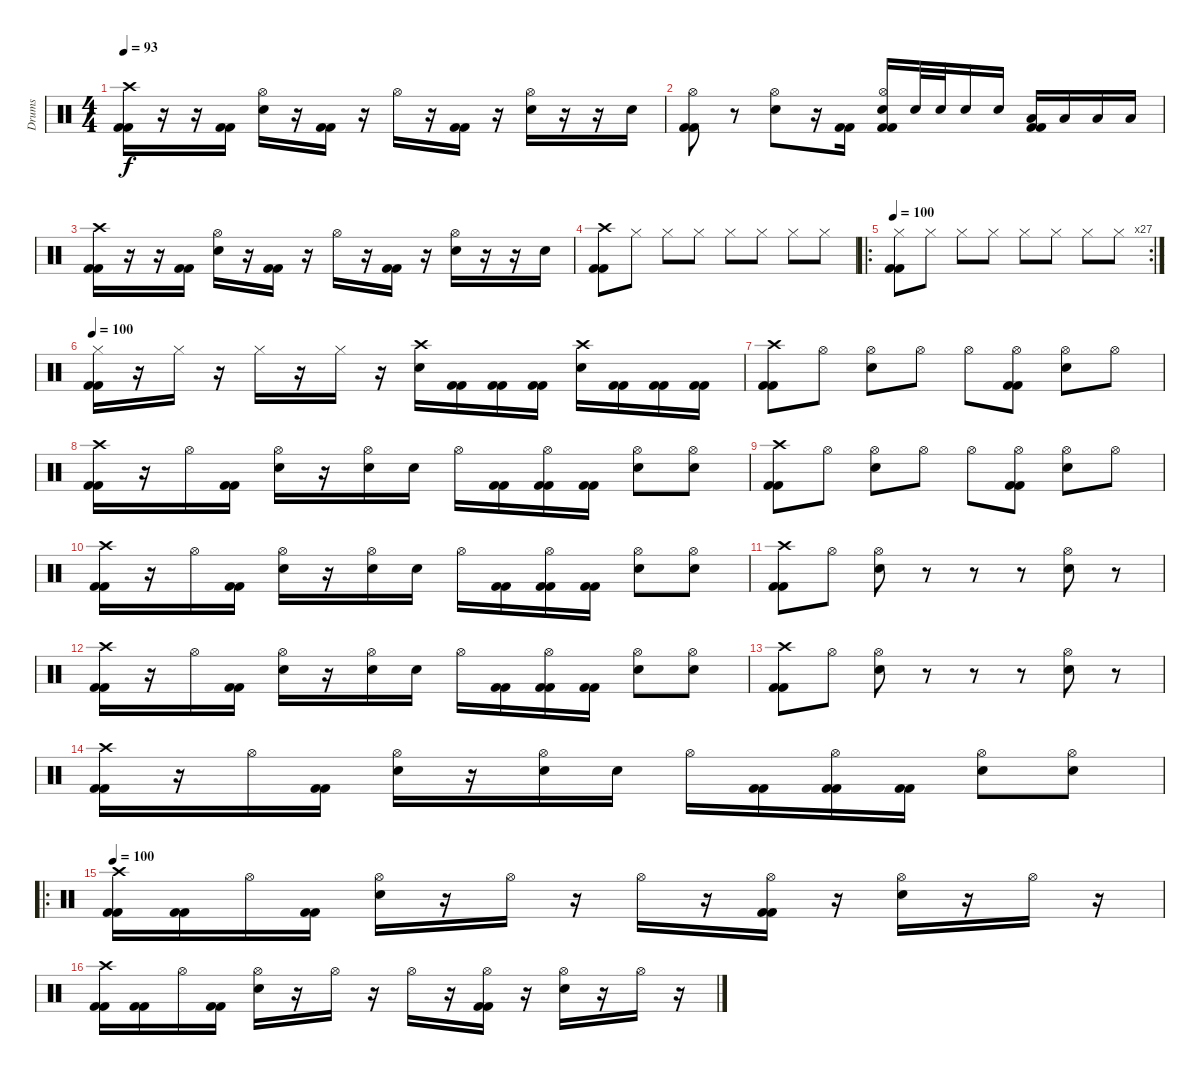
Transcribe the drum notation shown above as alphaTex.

\track ("Drums" "Drums") {instrument percussion}
\staff {score}
\articulation defaults
\ts (4 4)
\tempo 93
\clef neutral
\ks c
("Crash high (hit)" "Kick (hit) 2" "Kick (hit) 2").16{dy f} r.16 r.16 ("Kick (hit) 2" "Kick (hit) 2").16 ("Hi-Hat (open)" "Electric Snare (hit)").16 r.16 ("Kick (hit) 2" "Kick (hit) 2").16 r.16 "Hi-Hat (open)".16 r.16 ("Kick (hit) 2" "Kick (hit) 2").16 r.16 ("Hi-Hat (open)" "Electric Snare (hit)").16 r.16 r.16 "Electric Snare (hit)".16 |
("Hi-Hat (open)" "Kick (hit) 2" "Kick (hit) 2").8 r.8 ("Hi-Hat (open)" "Electric Snare (hit)").8 r.16 ("Kick (hit) 2" "Kick (hit) 2").16 ("Hi-Hat (open)" "Electric Snare (hit)" "Kick (hit) 2" "Kick (hit) 2").16 "Electric Snare (hit)".32 "Electric Snare (hit)".32 "Electric Snare (hit)".16 "Electric Snare (hit)".16 ("Low Tom (hit)" "Kick (hit) 2" "Kick (hit) 2").16 "Low Tom (hit)".16 "Low Tom (hit)".16 "Low Tom (hit)".16 |
("Crash high (hit)" "Kick (hit) 2" "Kick (hit) 2").16 r.16 r.16 ("Kick (hit) 2" "Kick (hit) 2").16 ("Hi-Hat (open)" "Electric Snare (hit)").16 r.16 ("Kick (hit) 2" "Kick (hit) 2").16 r.16 "Hi-Hat (open)".16 r.16 ("Kick (hit) 2" "Kick (hit) 2").16 r.16 ("Hi-Hat (open)" "Electric Snare (hit)").16 r.16 r.16 "Electric Snare (hit)".16 |
("Crash high (hit)" "Kick (hit) 2" "Kick (hit) 2").8 "Hi-Hat (closed)".8 "Hi-Hat (closed)".8 "Hi-Hat (closed)".8 "Hi-Hat (closed)".8 "Hi-Hat (closed)".8 "Hi-Hat (closed)".8 "Hi-Hat (closed)".8 |
\ro
\rc 27
\tempo 100
("Hi-Hat (closed)" "Kick (hit) 2" "Kick (hit) 2").8 "Hi-Hat (closed)".8 "Hi-Hat (closed)".8 "Hi-Hat (closed)".8 "Hi-Hat (closed)".8 "Hi-Hat (closed)".8 "Hi-Hat (closed)".8 "Hi-Hat (closed)".8 |
\tempo 100
("Hi-Hat (closed)" "Kick (hit) 2" "Kick (hit) 2").16 r.16 "Hi-Hat (closed)".16 r.16 "Hi-Hat (closed)".16 r.16 "Hi-Hat (closed)".16 r.16 ("Crash high (hit)" "Electric Snare (hit)").16 ("Kick (hit) 2" "Kick (hit) 2").16 ("Kick (hit) 2" "Kick (hit) 2").16 ("Kick (hit) 2" "Kick (hit) 2").16 ("Crash high (hit)" "Electric Snare (hit)").16 ("Kick (hit) 2" "Kick (hit) 2").16 ("Kick (hit) 2" "Kick (hit) 2").16 ("Kick (hit) 2" "Kick (hit) 2").16 |
("Crash high (hit)" "Kick (hit) 2" "Kick (hit) 2").8 "Hi-Hat (open)".8 ("Hi-Hat (open)" "Electric Snare (hit)").8 "Hi-Hat (open)".8 "Hi-Hat (open)".8 ("Hi-Hat (open)" "Kick (hit) 2" "Kick (hit) 2").8 ("Hi-Hat (open)" "Electric Snare (hit)").8 "Hi-Hat (open)".8 |
("Crash high (hit)" "Kick (hit) 2" "Kick (hit) 2").16 r.16 "Hi-Hat (open)".16 ("Kick (hit) 2" "Kick (hit) 2").16 ("Hi-Hat (open)" "Electric Snare (hit)").16 r.16 ("Hi-Hat (open)" "Electric Snare (hit)").16 "Electric Snare (hit)".16 "Hi-Hat (open)".16 ("Kick (hit) 2" "Kick (hit) 2").16 ("Hi-Hat (open)" "Kick (hit) 2" "Kick (hit) 2").16 ("Kick (hit) 2" "Kick (hit) 2").16 ("Hi-Hat (open)" "Electric Snare (hit)").8 ("Hi-Hat (open)" "Electric Snare (hit)").8 |
("Crash high (hit)" "Kick (hit) 2" "Kick (hit) 2").8 "Hi-Hat (open)".8 ("Hi-Hat (open)" "Electric Snare (hit)").8 "Hi-Hat (open)".8 "Hi-Hat (open)".8 ("Hi-Hat (open)" "Kick (hit) 2" "Kick (hit) 2").8 ("Hi-Hat (open)" "Electric Snare (hit)").8 "Hi-Hat (open)".8 |
("Crash high (hit)" "Kick (hit) 2" "Kick (hit) 2").16 r.16 "Hi-Hat (open)".16 ("Kick (hit) 2" "Kick (hit) 2").16 ("Hi-Hat (open)" "Electric Snare (hit)").16 r.16 ("Hi-Hat (open)" "Electric Snare (hit)").16 "Electric Snare (hit)".16 "Hi-Hat (open)".16 ("Kick (hit) 2" "Kick (hit) 2").16 ("Hi-Hat (open)" "Kick (hit) 2" "Kick (hit) 2").16 ("Kick (hit) 2" "Kick (hit) 2").16 ("Hi-Hat (open)" "Electric Snare (hit)").8 ("Hi-Hat (open)" "Electric Snare (hit)").8 |
("Crash high (hit)" "Kick (hit) 2" "Kick (hit) 2").8 "Hi-Hat (open)".8 ("Hi-Hat (open)" "Electric Snare (hit)").8 r.8 r.8 r.8 ("Hi-Hat (open)" "Electric Snare (hit)").8 r.8 |
("Crash high (hit)" "Kick (hit) 2" "Kick (hit) 2").16 r.16 "Hi-Hat (open)".16 ("Kick (hit) 2" "Kick (hit) 2").16 ("Hi-Hat (open)" "Electric Snare (hit)").16 r.16 ("Hi-Hat (open)" "Electric Snare (hit)").16 "Electric Snare (hit)".16 "Hi-Hat (open)".16 ("Kick (hit) 2" "Kick (hit) 2").16 ("Hi-Hat (open)" "Kick (hit) 2" "Kick (hit) 2").16 ("Kick (hit) 2" "Kick (hit) 2").16 ("Hi-Hat (open)" "Electric Snare (hit)").8 ("Hi-Hat (open)" "Electric Snare (hit)").8 |
("Crash high (hit)" "Kick (hit) 2" "Kick (hit) 2").8 "Hi-Hat (open)".8 ("Hi-Hat (open)" "Electric Snare (hit)").8 r.8 r.8 r.8 ("Hi-Hat (open)" "Electric Snare (hit)").8 r.8 |
("Crash high (hit)" "Kick (hit) 2" "Kick (hit) 2").16 r.16 "Hi-Hat (open)".16 ("Kick (hit) 2" "Kick (hit) 2").16 ("Hi-Hat (open)" "Electric Snare (hit)").16 r.16 ("Hi-Hat (open)" "Electric Snare (hit)").16 "Electric Snare (hit)".16 "Hi-Hat (open)".16 ("Kick (hit) 2" "Kick (hit) 2").16 ("Hi-Hat (open)" "Kick (hit) 2" "Kick (hit) 2").16 ("Kick (hit) 2" "Kick (hit) 2").16 ("Hi-Hat (open)" "Electric Snare (hit)").8 ("Hi-Hat (open)" "Electric Snare (hit)").8 |
\ro
\tempo 100
("Crash high (hit)" "Kick (hit) 2" "Kick (hit) 2").16 ("Kick (hit) 2" "Kick (hit) 2").16 "Hi-Hat (open)".16 ("Kick (hit) 2" "Kick (hit) 2").16 ("Hi-Hat (open)" "Electric Snare (hit)").16 r.16 "Hi-Hat (open)".16 r.16 "Hi-Hat (open)".16 r.16 ("Hi-Hat (open)" "Kick (hit) 2" "Kick (hit) 2").16 r.16 ("Hi-Hat (open)" "Electric Snare (hit)").16 r.16 "Hi-Hat (open)".16 r.16 |
("Crash high (hit)" "Kick (hit) 2" "Kick (hit) 2").16 ("Kick (hit) 2" "Kick (hit) 2").16 "Hi-Hat (open)".16 ("Kick (hit) 2" "Kick (hit) 2").16 ("Hi-Hat (open)" "Electric Snare (hit)").16 r.16 "Hi-Hat (open)".16 r.16 "Hi-Hat (open)".16 r.16 ("Hi-Hat (open)" "Kick (hit) 2" "Kick (hit) 2").16 r.16 ("Hi-Hat (open)" "Electric Snare (hit)").16 r.16 "Hi-Hat (open)".16 r.16
